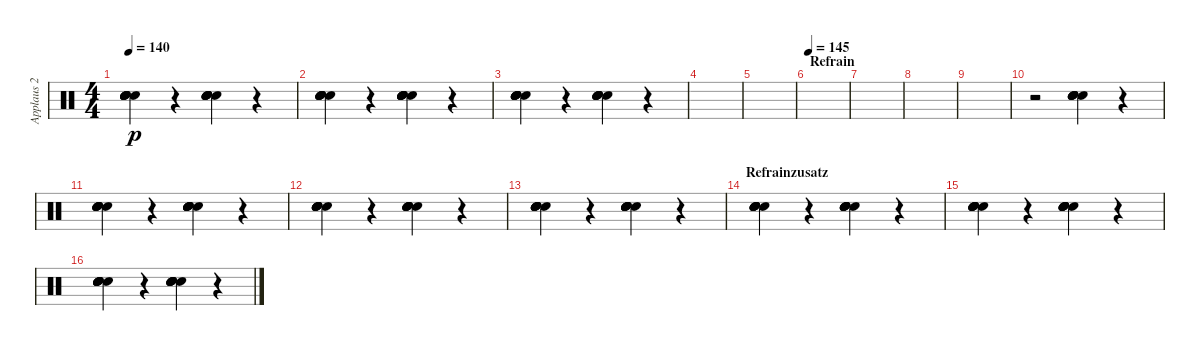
\track ("Applaus 2" "Applaus 2") {instrument percussion}
\staff {score}
\articulation defaults
\ts (4 4)
\tempo 140
\clef neutral
\ks c
("Hand Clap (hit)" "Hand Clap (hit)" "Hand Clap (hit)" "Hand Clap (hit)" "Hand Clap (hit)" "Hand Clap (hit)").4{bd 60 dy p} r.4 ("Hand Clap (hit)" "Hand Clap (hit)" "Hand Clap (hit)" "Hand Clap (hit)" "Hand Clap (hit)" "Hand Clap (hit)").4{bd 60} r.4 |
("Hand Clap (hit)" "Hand Clap (hit)" "Hand Clap (hit)" "Hand Clap (hit)" "Hand Clap (hit)" "Hand Clap (hit)").4{bd 60} r.4 ("Hand Clap (hit)" "Hand Clap (hit)" "Hand Clap (hit)" "Hand Clap (hit)" "Hand Clap (hit)" "Hand Clap (hit)").4{bd 60} r.4 |
("Hand Clap (hit)" "Hand Clap (hit)" "Hand Clap (hit)" "Hand Clap (hit)" "Hand Clap (hit)" "Hand Clap (hit)").4{bd 60} r.4 ("Hand Clap (hit)" "Hand Clap (hit)" "Hand Clap (hit)" "Hand Clap (hit)" "Hand Clap (hit)" "Hand Clap (hit)").4{bd 60} r.4 |
|
|
\section ("" "Refrain")
\tempo 145
|
|
|
|
r.2 ("Hand Clap (hit)" "Hand Clap (hit)" "Hand Clap (hit)" "Hand Clap (hit)" "Hand Clap (hit)").4{bd 60} r.4 |
("Hand Clap (hit)" "Hand Clap (hit)" "Hand Clap (hit)" "Hand Clap (hit)" "Hand Clap (hit)" "Hand Clap (hit)").4{bd 60} r.4 ("Hand Clap (hit)" "Hand Clap (hit)" "Hand Clap (hit)" "Hand Clap (hit)" "Hand Clap (hit)" "Hand Clap (hit)").4{bd 60} r.4 |
("Hand Clap (hit)" "Hand Clap (hit)" "Hand Clap (hit)" "Hand Clap (hit)" "Hand Clap (hit)" "Hand Clap (hit)").4{bd 60} r.4 ("Hand Clap (hit)" "Hand Clap (hit)" "Hand Clap (hit)" "Hand Clap (hit)" "Hand Clap (hit)" "Hand Clap (hit)").4{bd 60} r.4 |
("Hand Clap (hit)" "Hand Clap (hit)" "Hand Clap (hit)" "Hand Clap (hit)" "Hand Clap (hit)" "Hand Clap (hit)").4{bd 60} r.4 ("Hand Clap (hit)" "Hand Clap (hit)" "Hand Clap (hit)" "Hand Clap (hit)" "Hand Clap (hit)" "Hand Clap (hit)").4{bd 60} r.4 |
\section ("" "Refrainzusatz")
("Hand Clap (hit)" "Hand Clap (hit)" "Hand Clap (hit)" "Hand Clap (hit)" "Hand Clap (hit)" "Hand Clap (hit)").4{bd 60} r.4 ("Hand Clap (hit)" "Hand Clap (hit)" "Hand Clap (hit)" "Hand Clap (hit)" "Hand Clap (hit)" "Hand Clap (hit)").4{bd 60} r.4 |
("Hand Clap (hit)" "Hand Clap (hit)" "Hand Clap (hit)" "Hand Clap (hit)" "Hand Clap (hit)" "Hand Clap (hit)").4{bd 60} r.4 ("Hand Clap (hit)" "Hand Clap (hit)" "Hand Clap (hit)" "Hand Clap (hit)" "Hand Clap (hit)" "Hand Clap (hit)").4{bd 60} r.4 |
("Hand Clap (hit)" "Hand Clap (hit)" "Hand Clap (hit)" "Hand Clap (hit)" "Hand Clap (hit)" "Hand Clap (hit)").4{bd 60} r.4 ("Hand Clap (hit)" "Hand Clap (hit)" "Hand Clap (hit)" "Hand Clap (hit)" "Hand Clap (hit)" "Hand Clap (hit)").4{bd 60} r.4
